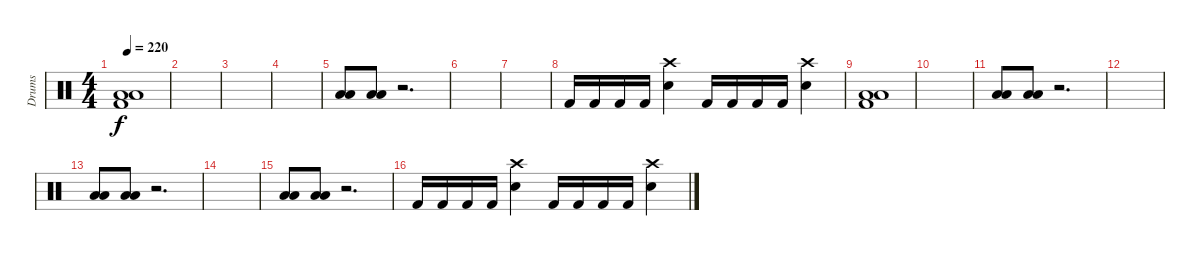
\track ("Drums" "Drums") {instrument percussion}
\staff {score}
\articulation defaults
\ts (4 4)
\tempo 220
\clef neutral
\ks c
("Kick (hit) 2" "Low Tom (hit)" "Low Floor Tom (hit)").1{dy f} |
|
|
|
("Low Tom (hit)" "Low Tom (hit)").8 ("Low Tom (hit)" "Low Tom (hit)").8 r.2{d} |
|
|
"Kick (hit) 2".16 "Kick (hit) 2".16 "Kick (hit) 2".16 "Kick (hit) 2".16 ("Snare (hit) 2" "Crash high (hit)").4 "Kick (hit) 2".16 "Kick (hit) 2".16 "Kick (hit) 2".16 "Kick (hit) 2".16 ("Snare (hit) 2" "Crash high (hit)").4 |
("Kick (hit) 2" "Low Tom (hit)" "Low Floor Tom (hit)").1 |
|
("Low Tom (hit)" "Low Tom (hit)").8 ("Low Tom (hit)" "Low Tom (hit)").8 r.2{d} |
|
("Low Tom (hit)" "Low Tom (hit)").8 ("Low Tom (hit)" "Low Tom (hit)").8 r.2{d} |
|
("Low Tom (hit)" "Low Tom (hit)").8 ("Low Tom (hit)" "Low Tom (hit)").8 r.2{d} |
"Kick (hit) 2".16 "Kick (hit) 2".16 "Kick (hit) 2".16 "Kick (hit) 2".16 ("Snare (hit) 2" "Crash high (hit)").4 "Kick (hit) 2".16 "Kick (hit) 2".16 "Kick (hit) 2".16 "Kick (hit) 2".16 ("Snare (hit) 2" "Crash high (hit)").4
